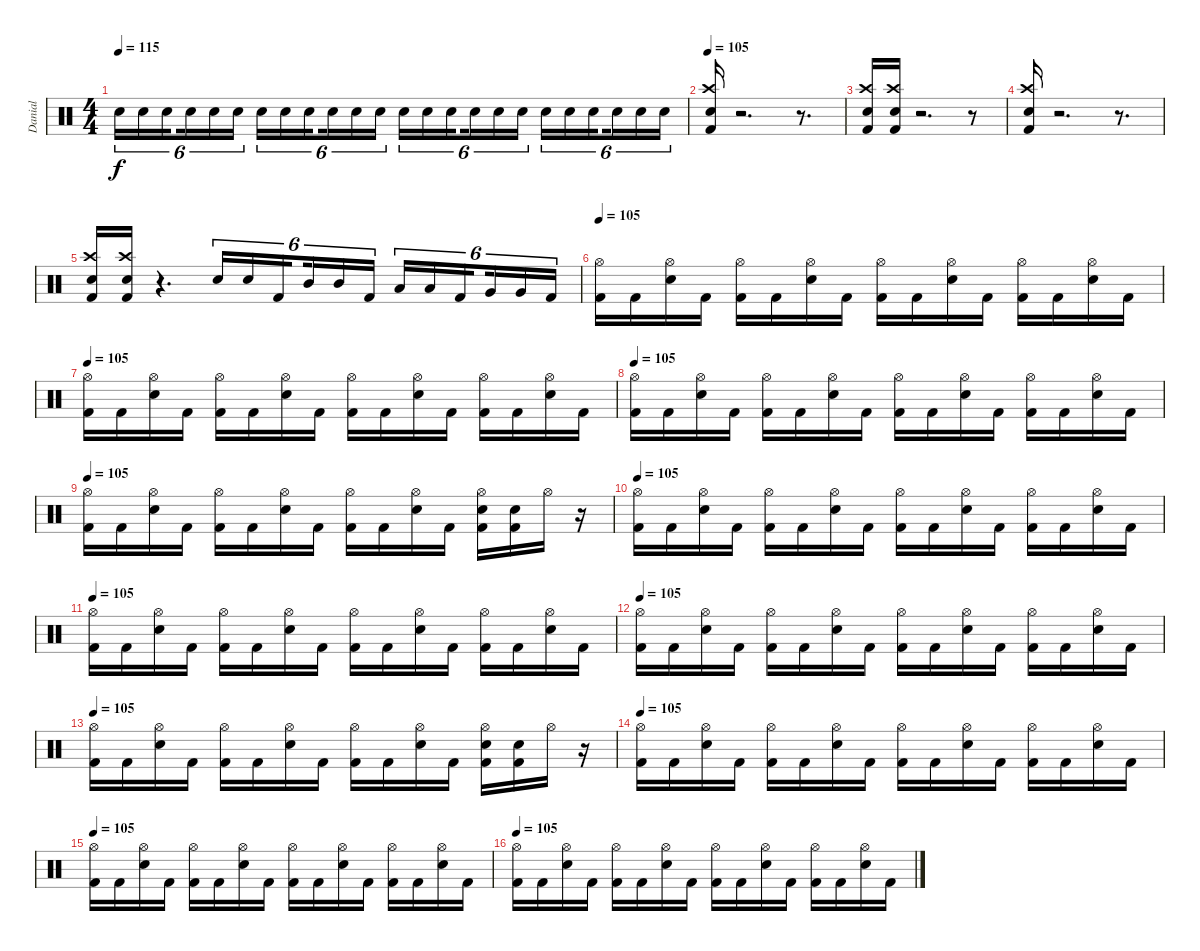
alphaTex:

\track ("Danial" "Danial") {instrument percussion}
\staff {score}
\articulation defaults
\ts (4 4)
\tempo 115
\clef neutral
\ks c "Snare (hit) 2".16{tu (6 4) dy f} "Snare (hit) 2".16{tu (6 4)} "Snare (hit) 2".16{tu (6 4) beam splitsecondary} "Snare (hit) 2".16{tu (6 4)} "Snare (hit) 2".16{tu (6 4)} "Snare (hit) 2".16{tu (6 4)} "Snare (hit) 2".16{tu (6 4)} "Snare (hit) 2".16{tu (6 4)} "Snare (hit) 2".16{tu (6 4) beam splitsecondary} "Snare (hit) 2".16{tu (6 4)} "Snare (hit) 2".16{tu (6 4)} "Snare (hit) 2".16{tu (6 4)} "Snare (hit) 2".16{tu (6 4)} "Snare (hit) 2".16{tu (6 4)} "Snare (hit) 2".16{tu (6 4) beam splitsecondary} "Snare (hit) 2".16{tu (6 4)} "Snare (hit) 2".16{tu (6 4)} "Snare (hit) 2".16{tu (6 4)} "Snare (hit) 2".16{tu (6 4)} "Snare (hit) 2".16{tu (6 4)} "Snare (hit) 2".16{tu (6 4) beam splitsecondary} "Snare (hit) 2".16{tu (6 4)} "Snare (hit) 2".16{tu (6 4)} "Snare (hit) 2".16{tu (6 4)}
|
\tempo 105
("Snare (hit) 2" "Crash high (hit)" "Kick (hit) 2").16 r.2{d} r.8{d} |
("Crash high (hit)" "Kick (hit) 2" "Snare (hit) 2").16 ("Crash high (hit)" "Kick (hit) 2" "Snare (hit) 2").16 r.2{d} r.8 |
("Snare (hit) 2" "Crash high (hit)" "Kick (hit) 2").16 r.2{d} r.8{d} |
("Crash high (hit)" "Kick (hit) 2" "Snare (hit) 2").16 ("Crash high (hit)" "Kick (hit) 2" "Snare (hit) 2").16 r.4{d} "Snare (hit) 2".16{tu (6 4)} "Snare (hit) 2".16{tu (6 4)} "Kick (hit) 2".16{tu (6 4) beam splitsecondary} "Mid Tom (hit)".16{tu (6 4)} "Mid Tom (hit)".16{tu (6 4)} "Kick (hit) 2".16{tu (6 4)} "Low Tom (hit)".16{tu (6 4)} "Low Tom (hit)".16{tu (6 4)} "Kick (hit) 2".16{tu (6 4) beam splitsecondary} "Very Low Tom (hit)".16{tu (6 4)} "Very Low Tom (hit)".16{tu (6 4)} "Kick (hit) 2".16{tu (6 4)} |
\tempo 105
("Hi-Hat (open)" "Kick (hit) 2").16 "Kick (hit) 2".16 ("Hi-Hat (open)" "Snare (hit) 2").16 "Kick (hit) 2".16 ("Hi-Hat (open)" "Kick (hit) 2").16 "Kick (hit) 2".16 ("Hi-Hat (open)" "Snare (hit) 2").16 "Kick (hit) 2".16 ("Hi-Hat (open)" "Kick (hit) 2").16 "Kick (hit) 2".16 ("Hi-Hat (open)" "Snare (hit) 2").16 "Kick (hit) 2".16 ("Hi-Hat (open)" "Kick (hit) 2").16 "Kick (hit) 2".16 ("Hi-Hat (open)" "Snare (hit) 2").16 "Kick (hit) 2".16 |
\tempo 105
("Hi-Hat (open)" "Kick (hit) 2").16 "Kick (hit) 2".16 ("Hi-Hat (open)" "Snare (hit) 2").16 "Kick (hit) 2".16 ("Hi-Hat (open)" "Kick (hit) 2").16 "Kick (hit) 2".16 ("Hi-Hat (open)" "Snare (hit) 2").16 "Kick (hit) 2".16 ("Hi-Hat (open)" "Kick (hit) 2").16 "Kick (hit) 2".16 ("Hi-Hat (open)" "Snare (hit) 2").16 "Kick (hit) 2".16 ("Hi-Hat (open)" "Kick (hit) 2").16 "Kick (hit) 2".16 ("Hi-Hat (open)" "Snare (hit) 2").16 "Kick (hit) 2".16 |
\tempo 105
("Hi-Hat (open)" "Kick (hit) 2").16 "Kick (hit) 2".16 ("Hi-Hat (open)" "Snare (hit) 2").16 "Kick (hit) 2".16 ("Hi-Hat (open)" "Kick (hit) 2").16 "Kick (hit) 2".16 ("Hi-Hat (open)" "Snare (hit) 2").16 "Kick (hit) 2".16 ("Hi-Hat (open)" "Kick (hit) 2").16 "Kick (hit) 2".16 ("Hi-Hat (open)" "Snare (hit) 2").16 "Kick (hit) 2".16 ("Hi-Hat (open)" "Kick (hit) 2").16 "Kick (hit) 2".16 ("Hi-Hat (open)" "Snare (hit) 2").16 "Kick (hit) 2".16 |
\tempo 105
("Hi-Hat (open)" "Kick (hit) 2").16 "Kick (hit) 2".16 ("Hi-Hat (open)" "Snare (hit) 2").16 "Kick (hit) 2".16 ("Hi-Hat (open)" "Kick (hit) 2").16 "Kick (hit) 2".16 ("Hi-Hat (open)" "Snare (hit) 2").16 "Kick (hit) 2".16 ("Hi-Hat (open)" "Kick (hit) 2").16 "Kick (hit) 2".16 ("Hi-Hat (open)" "Snare (hit) 2").16 "Kick (hit) 2".16 ("Hi-Hat (open)" "Snare (hit) 2" "Kick (hit) 2").16 ("Snare (hit) 2" "Kick (hit) 2").16 "Hi-Hat (open)".16 r.16 |
\tempo 105
("Hi-Hat (open)" "Kick (hit) 2").16 "Kick (hit) 2".16 ("Hi-Hat (open)" "Snare (hit) 2").16 "Kick (hit) 2".16 ("Hi-Hat (open)" "Kick (hit) 2").16 "Kick (hit) 2".16 ("Hi-Hat (open)" "Snare (hit) 2").16 "Kick (hit) 2".16 ("Hi-Hat (open)" "Kick (hit) 2").16 "Kick (hit) 2".16 ("Hi-Hat (open)" "Snare (hit) 2").16 "Kick (hit) 2".16 ("Hi-Hat (open)" "Kick (hit) 2").16 "Kick (hit) 2".16 ("Hi-Hat (open)" "Snare (hit) 2").16 "Kick (hit) 2".16 |
\tempo 105
("Hi-Hat (open)" "Kick (hit) 2").16 "Kick (hit) 2".16 ("Hi-Hat (open)" "Snare (hit) 2").16 "Kick (hit) 2".16 ("Hi-Hat (open)" "Kick (hit) 2").16 "Kick (hit) 2".16 ("Hi-Hat (open)" "Snare (hit) 2").16 "Kick (hit) 2".16 ("Hi-Hat (open)" "Kick (hit) 2").16 "Kick (hit) 2".16 ("Hi-Hat (open)" "Snare (hit) 2").16 "Kick (hit) 2".16 ("Hi-Hat (open)" "Kick (hit) 2").16 "Kick (hit) 2".16 ("Hi-Hat (open)" "Snare (hit) 2").16 "Kick (hit) 2".16 |
\tempo 105
("Hi-Hat (open)" "Kick (hit) 2").16 "Kick (hit) 2".16 ("Hi-Hat (open)" "Snare (hit) 2").16 "Kick (hit) 2".16 ("Hi-Hat (open)" "Kick (hit) 2").16 "Kick (hit) 2".16 ("Hi-Hat (open)" "Snare (hit) 2").16 "Kick (hit) 2".16 ("Hi-Hat (open)" "Kick (hit) 2").16 "Kick (hit) 2".16 ("Hi-Hat (open)" "Snare (hit) 2").16 "Kick (hit) 2".16 ("Hi-Hat (open)" "Kick (hit) 2").16 "Kick (hit) 2".16 ("Hi-Hat (open)" "Snare (hit) 2").16 "Kick (hit) 2".16 |
\tempo 105
("Hi-Hat (open)" "Kick (hit) 2").16 "Kick (hit) 2".16 ("Hi-Hat (open)" "Snare (hit) 2").16 "Kick (hit) 2".16 ("Hi-Hat (open)" "Kick (hit) 2").16 "Kick (hit) 2".16 ("Hi-Hat (open)" "Snare (hit) 2").16 "Kick (hit) 2".16 ("Hi-Hat (open)" "Kick (hit) 2").16 "Kick (hit) 2".16 ("Hi-Hat (open)" "Snare (hit) 2").16 "Kick (hit) 2".16 ("Hi-Hat (open)" "Snare (hit) 2" "Kick (hit) 2").16 ("Snare (hit) 2" "Kick (hit) 2").16 "Hi-Hat (open)".16 r.16 |
\tempo 105
("Hi-Hat (open)" "Kick (hit) 2").16 "Kick (hit) 2".16 ("Hi-Hat (open)" "Snare (hit) 2").16 "Kick (hit) 2".16 ("Hi-Hat (open)" "Kick (hit) 2").16 "Kick (hit) 2".16 ("Hi-Hat (open)" "Snare (hit) 2").16 "Kick (hit) 2".16 ("Hi-Hat (open)" "Kick (hit) 2").16 "Kick (hit) 2".16 ("Hi-Hat (open)" "Snare (hit) 2").16 "Kick (hit) 2".16 ("Hi-Hat (open)" "Kick (hit) 2").16 "Kick (hit) 2".16 ("Hi-Hat (open)" "Snare (hit) 2").16 "Kick (hit) 2".16 |
\tempo 105
("Hi-Hat (open)" "Kick (hit) 2").16 "Kick (hit) 2".16 ("Hi-Hat (open)" "Snare (hit) 2").16 "Kick (hit) 2".16 ("Hi-Hat (open)" "Kick (hit) 2").16 "Kick (hit) 2".16 ("Hi-Hat (open)" "Snare (hit) 2").16 "Kick (hit) 2".16 ("Hi-Hat (open)" "Kick (hit) 2").16 "Kick (hit) 2".16 ("Hi-Hat (open)" "Snare (hit) 2").16 "Kick (hit) 2".16 ("Hi-Hat (open)" "Kick (hit) 2").16 "Kick (hit) 2".16 ("Hi-Hat (open)" "Snare (hit) 2").16 "Kick (hit) 2".16 |
\tempo 105
("Hi-Hat (open)" "Kick (hit) 2").16 "Kick (hit) 2".16 ("Hi-Hat (open)" "Snare (hit) 2").16 "Kick (hit) 2".16 ("Hi-Hat (open)" "Kick (hit) 2").16 "Kick (hit) 2".16 ("Hi-Hat (open)" "Snare (hit) 2").16 "Kick (hit) 2".16 ("Hi-Hat (open)" "Kick (hit) 2").16 "Kick (hit) 2".16 ("Hi-Hat (open)" "Snare (hit) 2").16 "Kick (hit) 2".16 ("Hi-Hat (open)" "Kick (hit) 2").16 "Kick (hit) 2".16 ("Hi-Hat (open)" "Snare (hit) 2").16 "Kick (hit) 2".16
